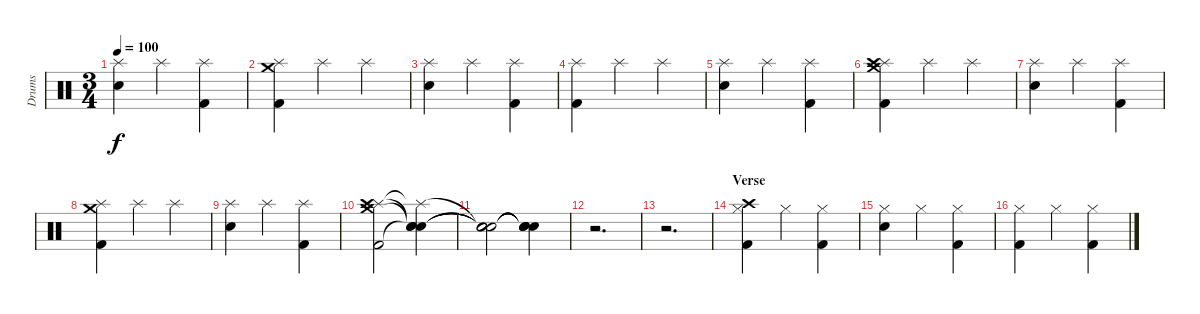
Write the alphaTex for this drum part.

\track ("Drums" "Drums") {instrument percussion}
\staff {score}
\articulation defaults
\ts (3 4)
\tempo 100
\clef neutral
\ks c
("Splash (hit)" "Electric Snare (hit)").4{dy f} "Splash (hit)".4 ("Splash (hit)" "Kick (hit) 2").4 |
("Splash (hit)" "Crash medium (hit)" "Kick (hit) 2").4 "Splash (hit)".4 "Splash (hit)".4 |
("Splash (hit)" "Electric Snare (hit)").4 "Splash (hit)".4 ("Splash (hit)" "Kick (hit) 2").4 |
("Splash (hit)" "Kick (hit) 2").4 "Splash (hit)".4 "Splash (hit)".4 |
("Splash (hit)" "Electric Snare (hit)").4 "Splash (hit)".4 ("Splash (hit)" "Kick (hit) 2").4 |
("Splash (hit)" "Crash high (hit)" "Crash medium (hit)" "Kick (hit) 2").4 "Splash (hit)".4 "Splash (hit)".4 |
("Splash (hit)" "Electric Snare (hit)").4 "Splash (hit)".4 ("Splash (hit)" "Kick (hit) 2").4 |
("Splash (hit)" "Crash medium (hit)" "Kick (hit) 2").4 "Splash (hit)".4 "Splash (hit)".4 |
("Splash (hit)" "Electric Snare (hit)").4 "Splash (hit)".4 ("Splash (hit)" "Kick (hit) 2").4 |
("Splash (hit)" "Crash medium (hit)" "Crash high (hit)" "Kick (hit) 2").2 ("Splash (hit)"{t} "Snare (hit)"{t} "Snare (hit)"{t} "Snare (hit)"{t}).4 |
("Snare (hit)"{t} "Snare (hit)"{t} "Snare (hit)"{t} "Snare (hit)"{t}).2 ("Snare (hit)"{t} "Snare (hit)"{t} "Snare (hit)"{t} "Snare (hit)"{t}).4 |
r.2{d} |
r.2{d} |
\section ("" "Verse")
("Hi-Hat (closed)" "Crash high (hit)" "Kick (hit) 2").4 "Hi-Hat (closed)".4 ("Hi-Hat (closed)" "Kick (hit) 2").4 |
("Hi-Hat (closed)" "Electric Snare (hit)").4 "Hi-Hat (closed)".4 ("Hi-Hat (closed)" "Kick (hit) 2").4 |
("Hi-Hat (closed)" "Kick (hit) 2").4 "Hi-Hat (closed)".4 ("Hi-Hat (closed)" "Kick (hit) 2").4
